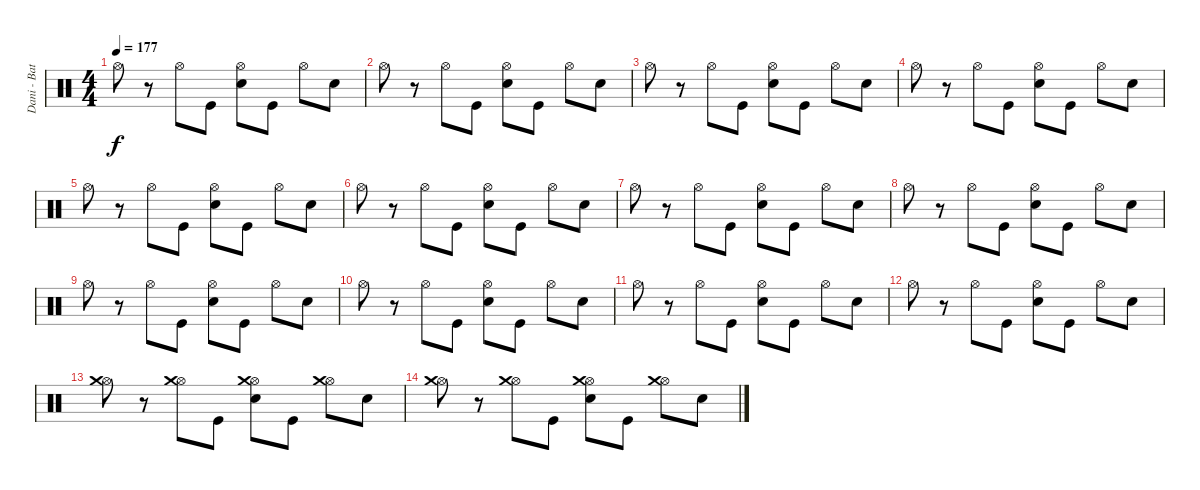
\track ("Dani - Bateria" "Dani - Bat") {instrument percussion}
\staff {score}
\articulation defaults
\ts (4 4)
\tempo 177
\clef neutral
\ks c "Hi-Hat (open)".8{dy f}
r.8 "Hi-Hat (open)".8 "Kick (hit)".8 ("Electric Snare (hit)" "Hi-Hat (open)").8 "Kick (hit)".8 "Hi-Hat (open)".8 "Electric Snare (hit)".8 |
"Hi-Hat (open)".8 r.8 "Hi-Hat (open)".8 "Kick (hit)".8 ("Electric Snare (hit)" "Hi-Hat (open)").8 "Kick (hit)".8 "Hi-Hat (open)".8 "Electric Snare (hit)".8 |
"Hi-Hat (open)".8 r.8 "Hi-Hat (open)".8 "Kick (hit)".8 ("Electric Snare (hit)" "Hi-Hat (open)").8 "Kick (hit)".8 "Hi-Hat (open)".8 "Electric Snare (hit)".8 |
"Hi-Hat (open)".8 r.8 "Hi-Hat (open)".8 "Kick (hit)".8 ("Electric Snare (hit)" "Hi-Hat (open)").8 "Kick (hit)".8 "Hi-Hat (open)".8 "Electric Snare (hit)".8 |
"Hi-Hat (open)".8 r.8 "Hi-Hat (open)".8 "Kick (hit)".8 ("Electric Snare (hit)" "Hi-Hat (open)").8 "Kick (hit)".8 "Hi-Hat (open)".8 "Electric Snare (hit)".8 |
"Hi-Hat (open)".8 r.8 "Hi-Hat (open)".8 "Kick (hit)".8 ("Electric Snare (hit)" "Hi-Hat (open)").8 "Kick (hit)".8 "Hi-Hat (open)".8 "Electric Snare (hit)".8 |
"Hi-Hat (open)".8 r.8 "Hi-Hat (open)".8 "Kick (hit)".8 ("Electric Snare (hit)" "Hi-Hat (open)").8 "Kick (hit)".8 "Hi-Hat (open)".8 "Electric Snare (hit)".8 |
"Hi-Hat (open)".8 r.8 "Hi-Hat (open)".8 "Kick (hit)".8 ("Electric Snare (hit)" "Hi-Hat (open)").8 "Kick (hit)".8 "Hi-Hat (open)".8 "Electric Snare (hit)".8 |
"Hi-Hat (open)".8 r.8 "Hi-Hat (open)".8 "Kick (hit)".8 ("Electric Snare (hit)" "Hi-Hat (open)").8 "Kick (hit)".8 "Hi-Hat (open)".8 "Electric Snare (hit)".8 |
"Hi-Hat (open)".8 r.8 "Hi-Hat (open)".8 "Kick (hit)".8 ("Electric Snare (hit)" "Hi-Hat (open)").8 "Kick (hit)".8 "Hi-Hat (open)".8 "Electric Snare (hit)".8 |
"Hi-Hat (open)".8 r.8 "Hi-Hat (open)".8 "Kick (hit)".8 ("Electric Snare (hit)" "Hi-Hat (open)").8 "Kick (hit)".8 "Hi-Hat (open)".8 "Electric Snare (hit)".8 |
"Hi-Hat (open)".8 r.8 "Hi-Hat (open)".8 "Kick (hit)".8 ("Electric Snare (hit)" "Hi-Hat (open)").8 "Kick (hit)".8 "Hi-Hat (open)".8 "Electric Snare (hit)".8 |
("Hi-Hat (open)" "Crash medium (hit)").8 r.8 ("Hi-Hat (open)" "Crash medium (hit)").8 "Kick (hit)".8 ("Electric Snare (hit)" "Hi-Hat (open)" "Crash medium (hit)").8 "Kick (hit)".8 ("Hi-Hat (open)" "Crash medium (hit)").8 "Electric Snare (hit)".8 |
("Hi-Hat (open)" "Crash medium (hit)").8 r.8 ("Hi-Hat (open)" "Crash medium (hit)").8 "Kick (hit)".8 ("Electric Snare (hit)" "Hi-Hat (open)" "Crash medium (hit)").8 "Kick (hit)".8 ("Hi-Hat (open)" "Crash medium (hit)").8 "Electric Snare (hit)".8
